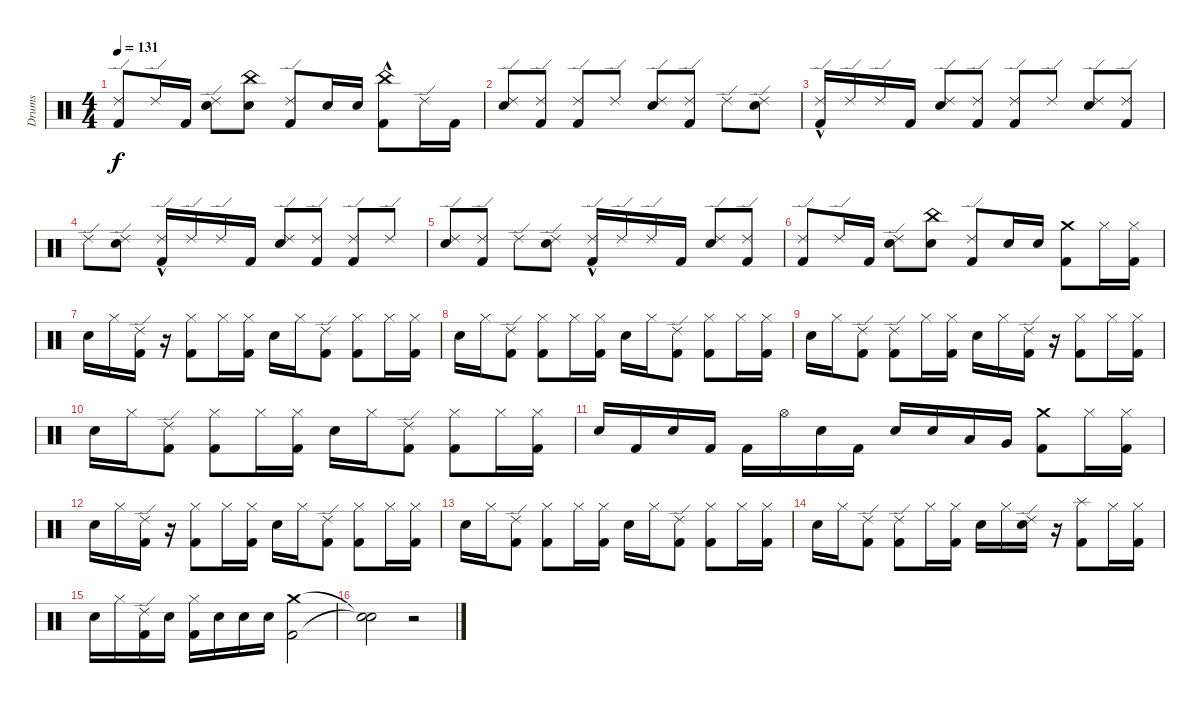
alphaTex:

\track ("Drums" "Drums") {instrument percussion}
\staff {score}
\articulation defaults
\ts (4 4)
\tempo 131
\clef neutral
\ks c
("Kick (hit) 2" "Ride (edge) 2").8{dy f} "Ride (edge) 2".16 "Kick (hit) 2".16 ("Electric Snare (hit)" "Ride (edge) 2").8 ("China (hit)" "Electric Snare (hit)").8 ("Ride (edge) 2" "Kick (hit) 2").8 "Electric Snare (hit)".16 "Electric Snare (hit)".16 ("Kick (hit) 2"{hac} "China (hit)").8 "Ride (edge) 2".16 "Kick (hit) 2".16 |
("Electric Snare (hit)" "Ride (edge) 2").8 ("Kick (hit) 2" "Ride (edge) 2").8 ("Kick (hit) 2" "Ride (edge) 2").8 "Ride (edge) 2".8 ("Electric Snare (hit)" "Ride (edge) 2").8 ("Kick (hit) 2" "Ride (edge) 2").8 "Ride (edge) 2".8 ("Electric Snare (hit)" "Ride (edge) 2").8 |
("Ride (edge) 2" "Kick (hit) 2"{hac}).16 "Ride (edge) 2".16 "Ride (edge) 2".16 "Kick (hit) 2".16 ("Electric Snare (hit)" "Ride (edge) 2").8 ("Kick (hit) 2" "Ride (edge) 2").8 ("Kick (hit) 2" "Ride (edge) 2").8 "Ride (edge) 2".8 ("Electric Snare (hit)" "Ride (edge) 2").8 ("Kick (hit) 2" "Ride (edge) 2").8 |
"Ride (edge) 2".8 ("Electric Snare (hit)" "Ride (edge) 2").8 ("Ride (edge) 2" "Kick (hit) 2"{hac}).16 "Ride (edge) 2".16 "Ride (edge) 2".16 "Kick (hit) 2".16 ("Electric Snare (hit)" "Ride (edge) 2").8 ("Kick (hit) 2" "Ride (edge) 2").8 ("Kick (hit) 2" "Ride (edge) 2").8 "Ride (edge) 2".8 |
("Electric Snare (hit)" "Ride (edge) 2").8 ("Kick (hit) 2" "Ride (edge) 2").8 "Ride (edge) 2".8 ("Electric Snare (hit)" "Ride (edge) 2").8 ("Ride (edge) 2" "Kick (hit) 2"{hac}).16 "Ride (edge) 2".16 "Ride (edge) 2".16 "Kick (hit) 2".16 ("Electric Snare (hit)" "Ride (edge) 2").8 ("Kick (hit) 2" "Ride (edge) 2").8 |
("Kick (hit) 2" "Ride (edge) 2").8 "Ride (edge) 2".16 "Kick (hit) 2".16 ("Electric Snare (hit)" "Ride (edge) 2").8 ("China (hit)" "Electric Snare (hit)").8 ("Ride (edge) 2" "Kick (hit) 2").8 "Electric Snare (hit)".16 "Electric Snare (hit)".16 ("Crash medium (hit)" "Kick (hit) 2").8 "Hi-Hat (closed)".16 ("Hi-Hat (closed)" "Kick (hit) 2").16 |
"Electric Snare (hit)".16 "Hi-Hat (closed)".16 ("Ride (edge) 2" "Kick (hit) 2").16 r.16 ("Hi-Hat (closed)" "Kick (hit) 2").8 "Hi-Hat (closed)".16 ("Hi-Hat (closed)" "Kick (hit) 2").16 "Electric Snare (hit)".16 "Hi-Hat (closed)".16 ("Ride (edge) 2" "Kick (hit) 2").8 ("Hi-Hat (closed)" "Kick (hit) 2").8 "Hi-Hat (closed)".16 ("Hi-Hat (closed)" "Kick (hit) 2").16 |
"Electric Snare (hit)".16 "Hi-Hat (closed)".16 ("Ride (edge) 2" "Kick (hit) 2").8 ("Hi-Hat (closed)" "Kick (hit) 2").8 "Hi-Hat (closed)".16 ("Hi-Hat (closed)" "Kick (hit) 2").16 "Electric Snare (hit)".16 "Hi-Hat (closed)".16 ("Ride (edge) 2" "Kick (hit) 2").8 ("Hi-Hat (closed)" "Kick (hit) 2").8 "Hi-Hat (closed)".16 ("Hi-Hat (closed)" "Kick (hit) 2").16 |
"Electric Snare (hit)".16 "Hi-Hat (closed)".16 ("Ride (edge) 2" "Kick (hit) 2").8 ("Ride (edge) 2" "Kick (hit) 2").8 "Hi-Hat (closed)".16 ("Hi-Hat (closed)" "Kick (hit) 2").16 "Electric Snare (hit)".16 "Hi-Hat (closed)".16 ("Ride (edge) 2" "Kick (hit) 2").16 r.16 ("Hi-Hat (closed)" "Kick (hit) 2").8 "Hi-Hat (closed)".16 ("Hi-Hat (closed)" "Kick (hit) 2").16 |
"Electric Snare (hit)".16 "Hi-Hat (closed)".16 ("Ride (edge) 2" "Kick (hit) 2").8 ("Hi-Hat (closed)" "Kick (hit) 2").8 "Hi-Hat (closed)".16 ("Hi-Hat (closed)" "Kick (hit) 2").16 "Electric Snare (hit)".16 "Hi-Hat (closed)".16 ("Ride (edge) 2" "Kick (hit) 2").8 ("Hi-Hat (closed)" "Kick (hit) 2").8 "Hi-Hat (closed)".16 ("Hi-Hat (closed)" "Kick (hit) 2").16 |
"Electric Snare (hit)".16 "Kick (hit) 2".16 "Electric Snare (hit)".16 "Kick (hit) 2".16 "Kick (hit) 2".16 "Hi-Hat (open)".16 "Electric Snare (hit)".16 "Kick (hit) 2".16 "Electric Snare (hit)".16 "Electric Snare (hit)".16 "Low Tom (hit)".16 "Very Low Tom (hit)".16 ("Crash medium (hit)" "Kick (hit) 2").8 "Hi-Hat (closed)".16 ("Hi-Hat (closed)" "Kick (hit) 2").16 |
"Electric Snare (hit)".16 "Hi-Hat (closed)".16 ("Ride (edge) 2" "Kick (hit) 2").16 r.16 ("Hi-Hat (closed)" "Kick (hit) 2").8 "Hi-Hat (closed)".16 ("Hi-Hat (closed)" "Kick (hit) 2").16 "Electric Snare (hit)".16 "Hi-Hat (closed)".16 ("Ride (edge) 2" "Kick (hit) 2").8 ("Hi-Hat (closed)" "Kick (hit) 2").8 "Hi-Hat (closed)".16 ("Hi-Hat (closed)" "Kick (hit) 2").16 |
"Electric Snare (hit)".16 "Hi-Hat (closed)".16 ("Ride (edge) 2" "Kick (hit) 2").8 ("Hi-Hat (closed)" "Kick (hit) 2").8 "Hi-Hat (closed)".16 ("Hi-Hat (closed)" "Kick (hit) 2").16 "Electric Snare (hit)".16 "Hi-Hat (closed)".16 ("Ride (edge) 2" "Kick (hit) 2").8 ("Hi-Hat (closed)" "Kick (hit) 2").8 "Hi-Hat (closed)".16 ("Hi-Hat (closed)" "Kick (hit) 2").16 |
"Electric Snare (hit)".16 "Hi-Hat (closed)".16 ("Ride (edge) 2" "Kick (hit) 2").8 ("Ride (edge) 2" "Kick (hit) 2").8 "Hi-Hat (closed)".16 ("Hi-Hat (closed)" "Kick (hit) 2").16 "Electric Snare (hit)".16 "Hi-Hat (closed)".16 ("Electric Snare (hit)" "Ride (edge) 2").16 r.16 ("Splash (hit)" "Kick (hit) 2").8 "Hi-Hat (closed)".16 ("Hi-Hat (closed)" "Kick (hit) 2").16 |
"Electric Snare (hit)".16 "Hi-Hat (closed)".16 ("Ride (edge) 2" "Kick (hit) 2").16 "Electric Snare (hit)".16 ("Kick (hit) 2" "Hi-Hat (closed)").16 "Electric Snare (hit)".16 "Electric Snare (hit)".16 "Electric Snare (hit)".16 ("Crash medium (hit)" "Kick (hit) 2").2 |
("Snare (hit)"{t} "Snare (hit)"{t}).2 r.2
